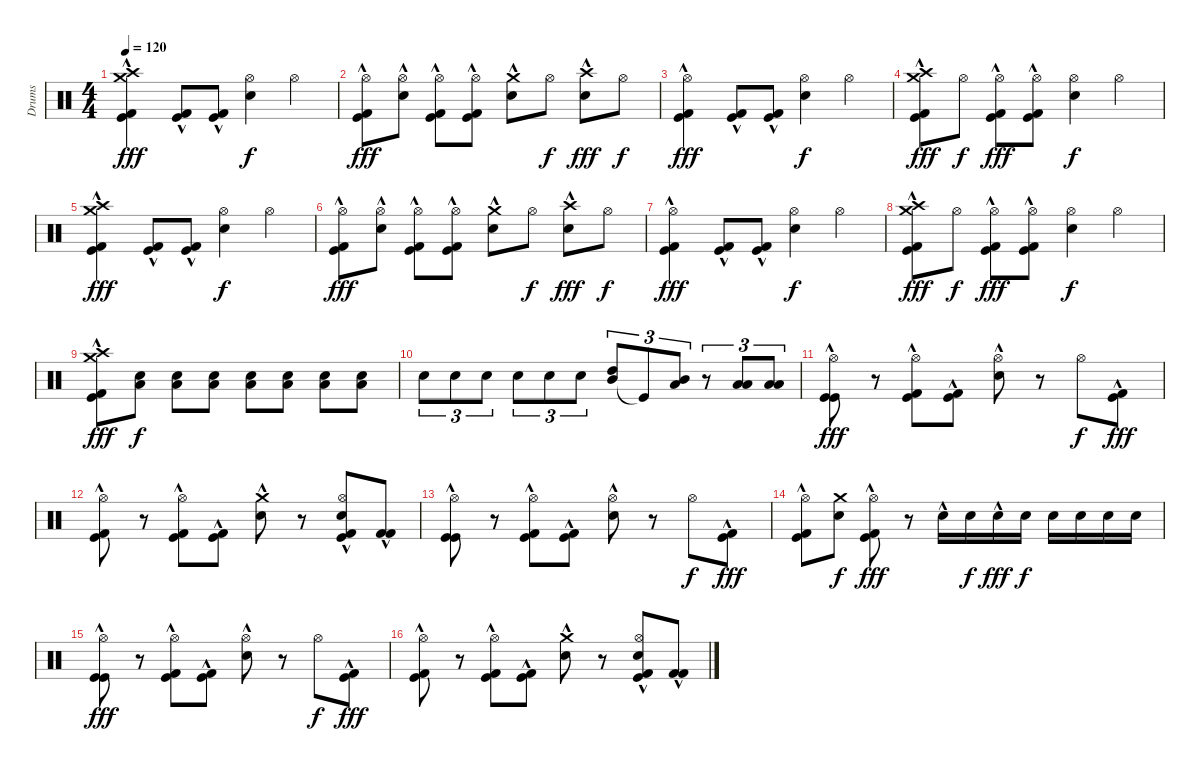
\track ("Drums" "Drums") {instrument percussion}
\staff {score}
\articulation defaults
\ts (4 4)
\tempo 120
\clef neutral
\ks c
("Crash medium (hit)" "Crash high (hit)" "Kick (hit) 2"{hac} "Kick (hit)"{hac}).4{dy fff} ("Kick (hit) 2"{hac} "Kick (hit)"{hac}).8 ("Kick (hit) 2"{hac} "Kick (hit)"{hac}).8 ("Hi-Hat (open)" "Snare (hit) 2").4{dy f} "Hi-Hat (open)".4 |
("Hi-Hat (open)" "Kick (hit) 2" "Kick (hit)"{hac}).8{dy fff} ("Hi-Hat (open)" "Snare (hit) 2"{hac}).8 ("Hi-Hat (open)" "Kick (hit) 2" "Kick (hit)"{hac}).8 ("Hi-Hat (open)" "Kick (hit) 2" "Kick (hit)"{hac}).8 ("Crash medium (hit)"{hac} "Snare (hit) 2"{hac}).8 "Hi-Hat (open)".8{dy f} ("Crash high (hit)"{hac} "Snare (hit) 2"{hac}).8{dy fff} "Hi-Hat (open)".8{dy f} |
("Hi-Hat (open)" "Kick (hit) 2"{hac} "Kick (hit)"{hac}).4{dy fff} ("Kick (hit) 2"{hac} "Kick (hit)"{hac}).8 ("Kick (hit) 2"{hac} "Kick (hit)"{hac}).8 ("Hi-Hat (open)" "Snare (hit) 2").4{dy f} "Hi-Hat (open)".4 |
("Crash medium (hit)" "Crash high (hit)" "Kick (hit) 2"{hac} "Kick (hit)"{hac}).8{dy fff} "Hi-Hat (open)".8{dy f} ("Hi-Hat (open)" "Kick (hit) 2"{hac} "Kick (hit)"{hac}).8{dy fff} ("Hi-Hat (open)" "Kick (hit) 2"{hac} "Kick (hit)"{hac}).8 ("Hi-Hat (open)" "Snare (hit) 2").4{dy f} "Hi-Hat (open)".4 |
("Crash medium (hit)" "Crash high (hit)" "Kick (hit) 2"{hac} "Kick (hit)"{hac}).4{dy fff} ("Kick (hit) 2"{hac} "Kick (hit)"{hac}).8 ("Kick (hit) 2"{hac} "Kick (hit)"{hac}).8 ("Hi-Hat (open)" "Snare (hit) 2").4{dy f} "Hi-Hat (open)".4 |
("Hi-Hat (open)" "Kick (hit) 2" "Kick (hit)"{hac}).8{dy fff} ("Hi-Hat (open)" "Snare (hit) 2"{hac}).8 ("Hi-Hat (open)" "Kick (hit) 2" "Kick (hit)"{hac}).8 ("Hi-Hat (open)" "Kick (hit) 2" "Kick (hit)"{hac}).8 ("Crash medium (hit)"{hac} "Snare (hit) 2"{hac}).8 "Hi-Hat (open)".8{dy f} ("Crash high (hit)"{hac} "Snare (hit) 2"{hac}).8{dy fff} "Hi-Hat (open)".8{dy f} |
("Hi-Hat (open)" "Kick (hit) 2"{hac} "Kick (hit)"{hac}).4{dy fff} ("Kick (hit) 2"{hac} "Kick (hit)"{hac}).8 ("Kick (hit) 2"{hac} "Kick (hit)"{hac}).8 ("Hi-Hat (open)" "Snare (hit) 2").4{dy f} "Hi-Hat (open)".4 |
("Crash medium (hit)" "Crash high (hit)" "Kick (hit) 2"{hac} "Kick (hit)"{hac}).8{dy fff} "Hi-Hat (open)".8{dy f} ("Hi-Hat (open)" "Kick (hit) 2"{hac} "Kick (hit)"{hac}).8{dy fff} ("Hi-Hat (open)" "Kick (hit) 2"{hac} "Kick (hit)"{hac}).8 ("Hi-Hat (open)" "Snare (hit) 2").4{dy f} "Hi-Hat (open)".4 |
("Crash medium (hit)" "Crash high (hit)" "Kick (hit) 2"{hac} "Kick (hit)"{hac}).8{dy fff} ("Low Tom (hit)" "Snare (hit) 2").8{dy f} ("Low Tom (hit)" "Snare (hit) 2").8 ("Low Tom (hit)" "Snare (hit) 2").8 ("Low Tom (hit)" "Snare (hit) 2").8 ("Low Tom (hit)" "Snare (hit) 2").8 ("Low Tom (hit)" "Snare (hit) 2").8 ("Low Tom (hit)" "Snare (hit) 2").8 |
"Snare (hit) 2".8{tu (3 2)} "Snare (hit) 2".8{tu (3 2)} "Snare (hit) 2".8{tu (3 2)} "Snare (hit) 2".8{tu (3 2)} "Snare (hit) 2".8{tu (3 2)} "Snare (hit) 2".8{tu (3 2)} ("Mid Tom (hit)" "High Tom (hit)").8{tu (3 2)} "Kick (hit)"{t}.8{tu (3 2)} ("Low Tom (hit)" "Mid Tom (hit)").8{tu (3 2)} r.8{tu (3 2)} ("Low Tom (hit)" "Low Tom (hit)").8{tu (3 2)} ("Low Tom (hit)" "Low Tom (hit)").8{tu (3 2)} |
("Hi-Hat (open)" "Kick (hit)" "Kick (hit)"{hac}).8{dy fff} r.8 ("Hi-Hat (open)" "Kick (hit) 2" "Kick (hit)"{hac}).8 ("Kick (hit) 2" "Kick (hit)"{hac}).8 ("Hi-Hat (open)" "Snare (hit) 2"{hac}).8 r.8 "Hi-Hat (open)".8{dy f} ("Kick (hit) 2" "Kick (hit)"{hac}).8{dy fff} |
("Hi-Hat (open)" "Kick (hit) 2" "Kick (hit)"{hac}).8 r.8 ("Hi-Hat (open)" "Kick (hit) 2" "Kick (hit)"{hac}).8 ("Kick (hit) 2" "Kick (hit)"{hac}).8 ("Crash medium (hit)" "Snare (hit) 2"{hac}).8 r.8 ("Hi-Hat (open)" "Snare (hit) 2"{hac} "Kick (hit) 2" "Kick (hit)"{hac}).8 ("Kick (hit) 2" "Kick (hit) 2"{hac}).8 |
("Hi-Hat (open)" "Kick (hit)" "Kick (hit)"{hac}).8 r.8 ("Hi-Hat (open)" "Kick (hit) 2" "Kick (hit)"{hac}).8 ("Kick (hit) 2" "Kick (hit)"{hac}).8 ("Hi-Hat (open)" "Snare (hit) 2"{hac}).8 r.8 "Hi-Hat (open)".8{dy f} ("Kick (hit) 2" "Kick (hit)"{hac}).8{dy fff} |
("Hi-Hat (open)" "Kick (hit) 2" "Kick (hit)"{hac}).8 ("Crash medium (hit)" "Snare (hit) 2").8{dy f} ("Hi-Hat (open)" "Kick (hit) 2" "Kick (hit)"{hac}).8{dy fff} r.8 "Snare (hit) 2"{hac}.16 "Snare (hit) 2".16{dy f} "Snare (hit) 2"{hac}.16{dy fff} "Snare (hit) 2".16{dy f} "Snare (hit) 2".16 "Snare (hit) 2".16 "Snare (hit) 2".16 "Snare (hit) 2".16 |
("Hi-Hat (open)" "Kick (hit)" "Kick (hit)"{hac}).8{dy fff} r.8 ("Hi-Hat (open)" "Kick (hit) 2" "Kick (hit)"{hac}).8 ("Kick (hit) 2" "Kick (hit)"{hac}).8 ("Hi-Hat (open)" "Snare (hit) 2"{hac}).8 r.8 "Hi-Hat (open)".8{dy f} ("Kick (hit) 2" "Kick (hit)"{hac}).8{dy fff} |
("Hi-Hat (open)" "Kick (hit) 2" "Kick (hit)"{hac}).8 r.8 ("Hi-Hat (open)" "Kick (hit) 2" "Kick (hit)"{hac}).8 ("Kick (hit) 2" "Kick (hit)"{hac}).8 ("Crash medium (hit)" "Snare (hit) 2"{hac}).8 r.8 ("Hi-Hat (open)" "Snare (hit) 2"{hac} "Kick (hit) 2" "Kick (hit)"{hac}).8 ("Kick (hit) 2" "Kick (hit) 2"{hac}).8
